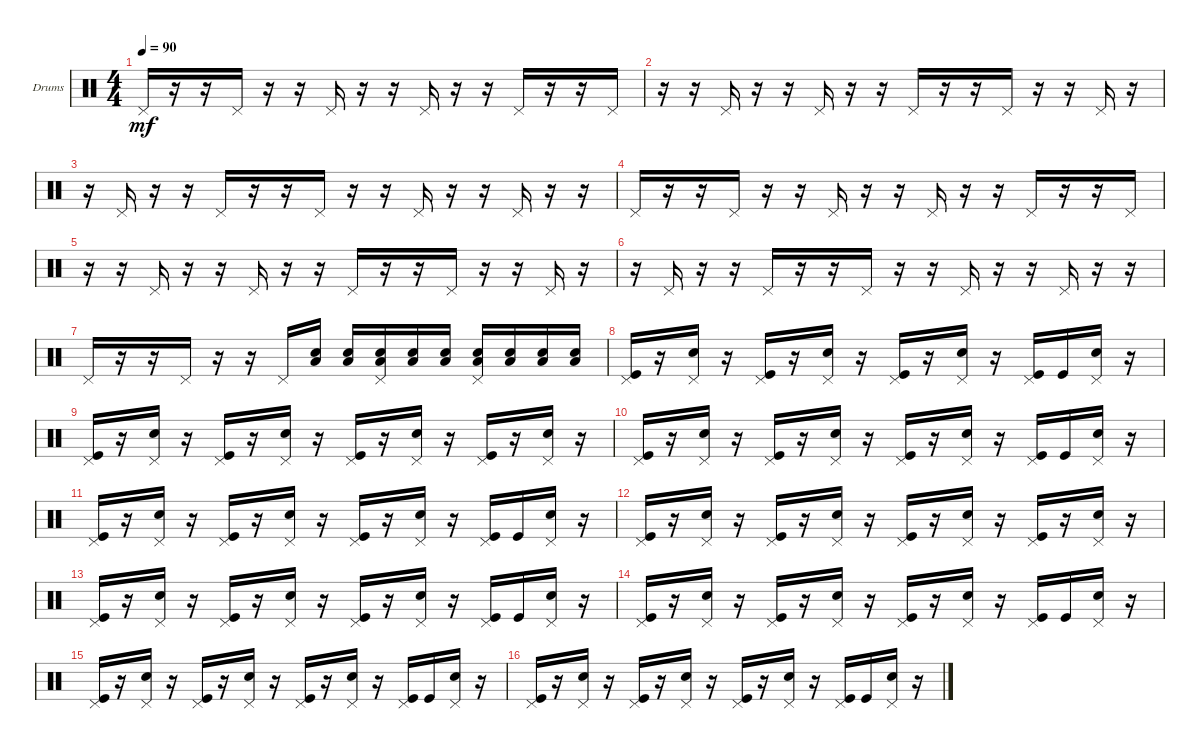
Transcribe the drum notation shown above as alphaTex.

\defaultSystemsLayout 4
\bracketExtendMode groupsimilarinstruments
\firstSystemTrackNameOrientation horizontal
\otherSystemsTrackNameOrientation horizontal
\track ("Drumkit" "Drums") {instrument percussion}
\staff {score}
\articulation defaults
\ts (4 4)
\tempo 90
\clef neutral
\ks c "Pedal Hi-Hat (hit)".16{dy mf}
r.16 r.16 "Pedal Hi-Hat (hit)".16 r.16 r.16 "Pedal Hi-Hat (hit)".16 r.16 r.16 "Pedal Hi-Hat (hit)".16 r.16 r.16 "Pedal Hi-Hat (hit)".16 r.16 r.16 "Pedal Hi-Hat (hit)".16 |
r.16 r.16 "Pedal Hi-Hat (hit)".16 r.16 r.16 "Pedal Hi-Hat (hit)".16 r.16 r.16 "Pedal Hi-Hat (hit)".16 r.16 r.16 "Pedal Hi-Hat (hit)".16 r.16 r.16 "Pedal Hi-Hat (hit)".16 r.16 |
r.16 "Pedal Hi-Hat (hit)".16 r.16 r.16 "Pedal Hi-Hat (hit)".16 r.16 r.16 "Pedal Hi-Hat (hit)".16 r.16 r.16 "Pedal Hi-Hat (hit)".16 r.16 r.16 "Pedal Hi-Hat (hit)".16 r.16 r.16 |
"Pedal Hi-Hat (hit)".16 r.16 r.16 "Pedal Hi-Hat (hit)".16 r.16 r.16 "Pedal Hi-Hat (hit)".16 r.16 r.16 "Pedal Hi-Hat (hit)".16 r.16 r.16 "Pedal Hi-Hat (hit)".16 r.16 r.16 "Pedal Hi-Hat (hit)".16 |
r.16 r.16 "Pedal Hi-Hat (hit)".16 r.16 r.16 "Pedal Hi-Hat (hit)".16 r.16 r.16 "Pedal Hi-Hat (hit)".16 r.16 r.16 "Pedal Hi-Hat (hit)".16 r.16 r.16 "Pedal Hi-Hat (hit)".16 r.16 |
r.16 "Pedal Hi-Hat (hit)".16 r.16 r.16 "Pedal Hi-Hat (hit)".16 r.16 r.16 "Pedal Hi-Hat (hit)".16 r.16 r.16 "Pedal Hi-Hat (hit)".16 r.16 r.16 "Pedal Hi-Hat (hit)".16 r.16 r.16 |
"Pedal Hi-Hat (hit)".16 r.16 r.16 "Pedal Hi-Hat (hit)".16 r.16 r.16 "Pedal Hi-Hat (hit)".16 ("Low Tom (hit)" "Snare (hit) 2").16 ("Low Tom (hit)" "Snare (hit) 2").16 ("Pedal Hi-Hat (hit)" "Snare (hit) 2" "Low Tom (hit)").16 ("Low Tom (hit)" "Snare (hit) 2").16 ("Snare (hit) 2" "Low Tom (hit)").16 ("Pedal Hi-Hat (hit)" "Low Tom (hit)" "Snare (hit) 2").16 ("Low Tom (hit)" "Snare (hit) 2").16 ("Snare (hit) 2" "Low Tom (hit)").16 ("Low Tom (hit)" "Snare (hit) 2").16 |
("Kick (hit)" "Pedal Hi-Hat (hit)").16 r.16 ("Snare (hit) 2" "Pedal Hi-Hat (hit)").16 r.16 ("Kick (hit)" "Pedal Hi-Hat (hit)").16 r.16 ("Snare (hit) 2" "Pedal Hi-Hat (hit)").16 r.16 ("Pedal Hi-Hat (hit)" "Kick (hit)").16 r.16 ("Snare (hit) 2" "Pedal Hi-Hat (hit)").16 r.16 ("Kick (hit)" "Pedal Hi-Hat (hit)").16 "Kick (hit)".16 ("Snare (hit) 2" "Pedal Hi-Hat (hit)").16 r.16 |
("Kick (hit)" "Pedal Hi-Hat (hit)").16 r.16 ("Pedal Hi-Hat (hit)" "Snare (hit) 2").16 r.16 ("Kick (hit)" "Pedal Hi-Hat (hit)").16 r.16 ("Snare (hit) 2" "Pedal Hi-Hat (hit)").16 r.16 ("Pedal Hi-Hat (hit)" "Kick (hit)").16 r.16 ("Pedal Hi-Hat (hit)" "Snare (hit) 2").16 r.16 ("Pedal Hi-Hat (hit)" "Kick (hit)").16 r.16 ("Pedal Hi-Hat (hit)" "Snare (hit) 2").16 r.16 |
("Kick (hit)" "Pedal Hi-Hat (hit)").16 r.16 ("Snare (hit) 2" "Pedal Hi-Hat (hit)").16 r.16 ("Kick (hit)" "Pedal Hi-Hat (hit)").16 r.16 ("Snare (hit) 2" "Pedal Hi-Hat (hit)").16 r.16 ("Pedal Hi-Hat (hit)" "Kick (hit)").16 r.16 ("Snare (hit) 2" "Pedal Hi-Hat (hit)").16 r.16 ("Kick (hit)" "Pedal Hi-Hat (hit)").16 "Kick (hit)".16 ("Snare (hit) 2" "Pedal Hi-Hat (hit)").16 r.16 |
("Kick (hit)" "Pedal Hi-Hat (hit)").16 r.16 ("Snare (hit) 2" "Pedal Hi-Hat (hit)").16 r.16 ("Kick (hit)" "Pedal Hi-Hat (hit)").16 r.16 ("Snare (hit) 2" "Pedal Hi-Hat (hit)").16 r.16 ("Pedal Hi-Hat (hit)" "Kick (hit)").16 r.16 ("Snare (hit) 2" "Pedal Hi-Hat (hit)").16 r.16 ("Kick (hit)" "Pedal Hi-Hat (hit)").16 "Kick (hit)".16 ("Snare (hit) 2" "Pedal Hi-Hat (hit)").16 r.16 |
("Kick (hit)" "Pedal Hi-Hat (hit)").16 r.16 ("Pedal Hi-Hat (hit)" "Snare (hit) 2").16 r.16 ("Kick (hit)" "Pedal Hi-Hat (hit)").16 r.16 ("Snare (hit) 2" "Pedal Hi-Hat (hit)").16 r.16 ("Pedal Hi-Hat (hit)" "Kick (hit)").16 r.16 ("Pedal Hi-Hat (hit)" "Snare (hit) 2").16 r.16 ("Pedal Hi-Hat (hit)" "Kick (hit)").16 r.16 ("Pedal Hi-Hat (hit)" "Snare (hit) 2").16 r.16 |
("Kick (hit)" "Pedal Hi-Hat (hit)").16 r.16 ("Snare (hit) 2" "Pedal Hi-Hat (hit)").16 r.16 ("Kick (hit)" "Pedal Hi-Hat (hit)").16 r.16 ("Snare (hit) 2" "Pedal Hi-Hat (hit)").16 r.16 ("Pedal Hi-Hat (hit)" "Kick (hit)").16 r.16 ("Snare (hit) 2" "Pedal Hi-Hat (hit)").16 r.16 ("Kick (hit)" "Pedal Hi-Hat (hit)").16 "Kick (hit)".16 ("Snare (hit) 2" "Pedal Hi-Hat (hit)").16 r.16 |
("Kick (hit)" "Pedal Hi-Hat (hit)").16 r.16 ("Snare (hit) 2" "Pedal Hi-Hat (hit)").16 r.16 ("Kick (hit)" "Pedal Hi-Hat (hit)").16 r.16 ("Snare (hit) 2" "Pedal Hi-Hat (hit)").16 r.16 ("Pedal Hi-Hat (hit)" "Kick (hit)").16 r.16 ("Snare (hit) 2" "Pedal Hi-Hat (hit)").16 r.16 ("Pedal Hi-Hat (hit)" "Kick (hit)").16 "Kick (hit)".16 ("Snare (hit) 2" "Pedal Hi-Hat (hit)").16 r.16 |
("Kick (hit)" "Pedal Hi-Hat (hit)").16 r.16 ("Snare (hit) 2" "Pedal Hi-Hat (hit)").16 r.16 ("Kick (hit)" "Pedal Hi-Hat (hit)").16 r.16 ("Snare (hit) 2" "Pedal Hi-Hat (hit)").16 r.16 ("Pedal Hi-Hat (hit)" "Kick (hit)").16 r.16 ("Snare (hit) 2" "Pedal Hi-Hat (hit)").16 r.16 ("Pedal Hi-Hat (hit)" "Kick (hit)").16 "Kick (hit)".16 ("Snare (hit) 2" "Pedal Hi-Hat (hit)").16 r.16 |
("Kick (hit)" "Pedal Hi-Hat (hit)").16 r.16 ("Snare (hit) 2" "Pedal Hi-Hat (hit)").16 r.16 ("Kick (hit)" "Pedal Hi-Hat (hit)").16 r.16 ("Snare (hit) 2" "Pedal Hi-Hat (hit)").16 r.16 ("Pedal Hi-Hat (hit)" "Kick (hit)").16 r.16 ("Snare (hit) 2" "Pedal Hi-Hat (hit)").16 r.16 ("Pedal Hi-Hat (hit)" "Kick (hit)").16 "Kick (hit)".16 ("Snare (hit) 2" "Pedal Hi-Hat (hit)").16 r.16
